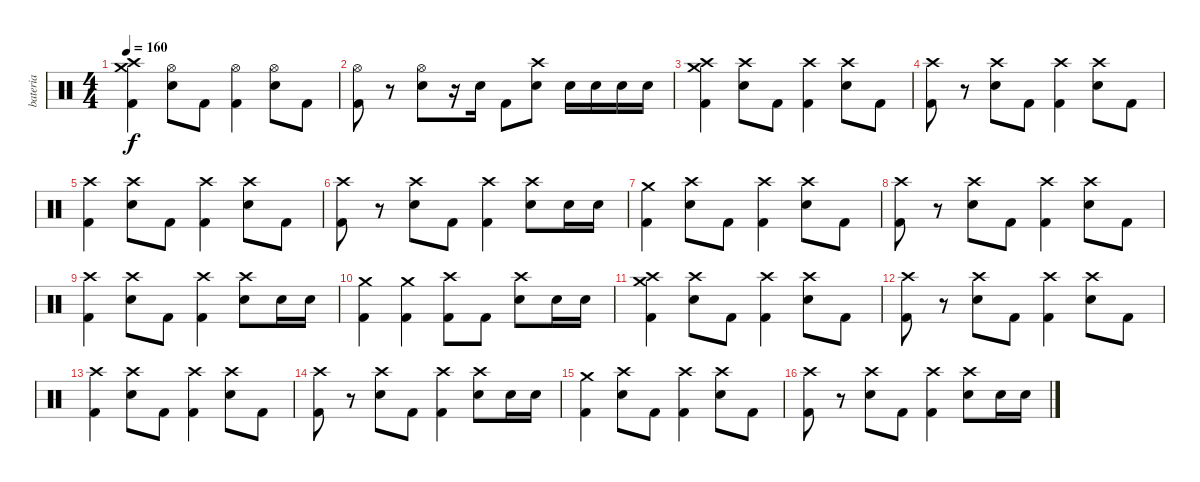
\track ("bateria" "bateria") {instrument percussion}
\staff {score}
\articulation defaults
\ts (4 4)
\tempo 160
\clef neutral
\ks c
("Crash medium (hit)" "Crash high (hit)" "Kick (hit) 2").4{dy f} ("Hi-Hat (open)" "Snare (hit) 2").8 "Kick (hit) 2".8 ("Hi-Hat (open)" "Kick (hit) 2").4 ("Hi-Hat (open)" "Snare (hit) 2").8 "Kick (hit) 2".8 |
("Hi-Hat (open)" "Kick (hit) 2").8 r.8 ("Hi-Hat (open)" "Snare (hit) 2").8 r.16 "Snare (hit) 2".16 "Kick (hit) 2".8 ("Crash high (hit)" "Snare (hit) 2").8 "Snare (hit) 2".16 "Snare (hit) 2".16 "Snare (hit) 2".16 "Snare (hit) 2".16 |
("Crash medium (hit)" "Crash high (hit)" "Kick (hit) 2").4 ("Crash high (hit)" "Snare (hit) 2").8 "Kick (hit) 2".8 ("Crash high (hit)" "Kick (hit) 2").4 ("Crash high (hit)" "Snare (hit) 2").8 "Kick (hit) 2".8 |
("Crash high (hit)" "Kick (hit) 2").8 r.8 ("Crash high (hit)" "Snare (hit) 2").8 "Kick (hit) 2".8 ("Crash high (hit)" "Kick (hit) 2").4 ("Crash high (hit)" "Snare (hit) 2").8 "Kick (hit) 2".8 |
("Crash high (hit)" "Kick (hit) 2").4 ("Crash high (hit)" "Snare (hit) 2").8 "Kick (hit) 2".8 ("Crash high (hit)" "Kick (hit) 2").4 ("Crash high (hit)" "Snare (hit) 2").8 "Kick (hit) 2".8 |
("Crash high (hit)" "Kick (hit) 2").8 r.8 ("Crash high (hit)" "Snare (hit) 2").8 "Kick (hit) 2".8 ("Crash high (hit)" "Kick (hit) 2").4 ("Crash high (hit)" "Snare (hit) 2").8 "Snare (hit) 2".16 "Snare (hit) 2".16 |
("Crash medium (hit)" "Kick (hit) 2").4 ("Crash high (hit)" "Snare (hit) 2").8 "Kick (hit) 2".8 ("Crash high (hit)" "Kick (hit) 2").4 ("Crash high (hit)" "Snare (hit) 2").8 "Kick (hit) 2".8 |
("Crash high (hit)" "Kick (hit) 2").8 r.8 ("Crash high (hit)" "Snare (hit) 2").8 "Kick (hit) 2".8 ("Crash high (hit)" "Kick (hit) 2").4 ("Crash high (hit)" "Snare (hit) 2").8 "Kick (hit) 2".8 |
("Crash high (hit)" "Kick (hit) 2").4 ("Crash high (hit)" "Snare (hit) 2").8 "Kick (hit) 2".8 ("Crash high (hit)" "Kick (hit) 2").4 ("Crash high (hit)" "Snare (hit) 2").8 "Snare (hit) 2".16 "Snare (hit) 2".16 |
("Crash medium (hit)" "Kick (hit) 2").4 ("Crash medium (hit)" "Kick (hit) 2").4 ("Crash high (hit)" "Kick (hit) 2").8 "Kick (hit) 2".8 ("Crash high (hit)" "Snare (hit) 2").8 "Snare (hit) 2".16 "Snare (hit) 2".16 |
("Crash medium (hit)" "Crash high (hit)" "Kick (hit) 2").4 ("Crash high (hit)" "Snare (hit) 2").8 "Kick (hit) 2".8 ("Crash high (hit)" "Kick (hit) 2").4 ("Crash high (hit)" "Snare (hit) 2").8 "Kick (hit) 2".8 |
("Crash high (hit)" "Kick (hit) 2").8 r.8 ("Crash high (hit)" "Snare (hit) 2").8 "Kick (hit) 2".8 ("Crash high (hit)" "Kick (hit) 2").4 ("Crash high (hit)" "Snare (hit) 2").8 "Kick (hit) 2".8 |
("Crash high (hit)" "Kick (hit) 2").4 ("Crash high (hit)" "Snare (hit) 2").8 "Kick (hit) 2".8 ("Crash high (hit)" "Kick (hit) 2").4 ("Crash high (hit)" "Snare (hit) 2").8 "Kick (hit) 2".8 |
("Crash high (hit)" "Kick (hit) 2").8 r.8 ("Crash high (hit)" "Snare (hit) 2").8 "Kick (hit) 2".8 ("Crash high (hit)" "Kick (hit) 2").4 ("Crash high (hit)" "Snare (hit) 2").8 "Snare (hit) 2".16 "Snare (hit) 2".16 |
("Crash medium (hit)" "Kick (hit) 2").4 ("Crash high (hit)" "Snare (hit) 2").8 "Kick (hit) 2".8 ("Crash high (hit)" "Kick (hit) 2").4 ("Crash high (hit)" "Snare (hit) 2").8 "Kick (hit) 2".8 |
("Crash high (hit)" "Kick (hit) 2").8 r.8 ("Crash high (hit)" "Snare (hit) 2").8 "Kick (hit) 2".8 ("Crash high (hit)" "Kick (hit) 2").4 ("Crash high (hit)" "Snare (hit) 2").8 "Snare (hit) 2".16 "Snare (hit) 2".16
